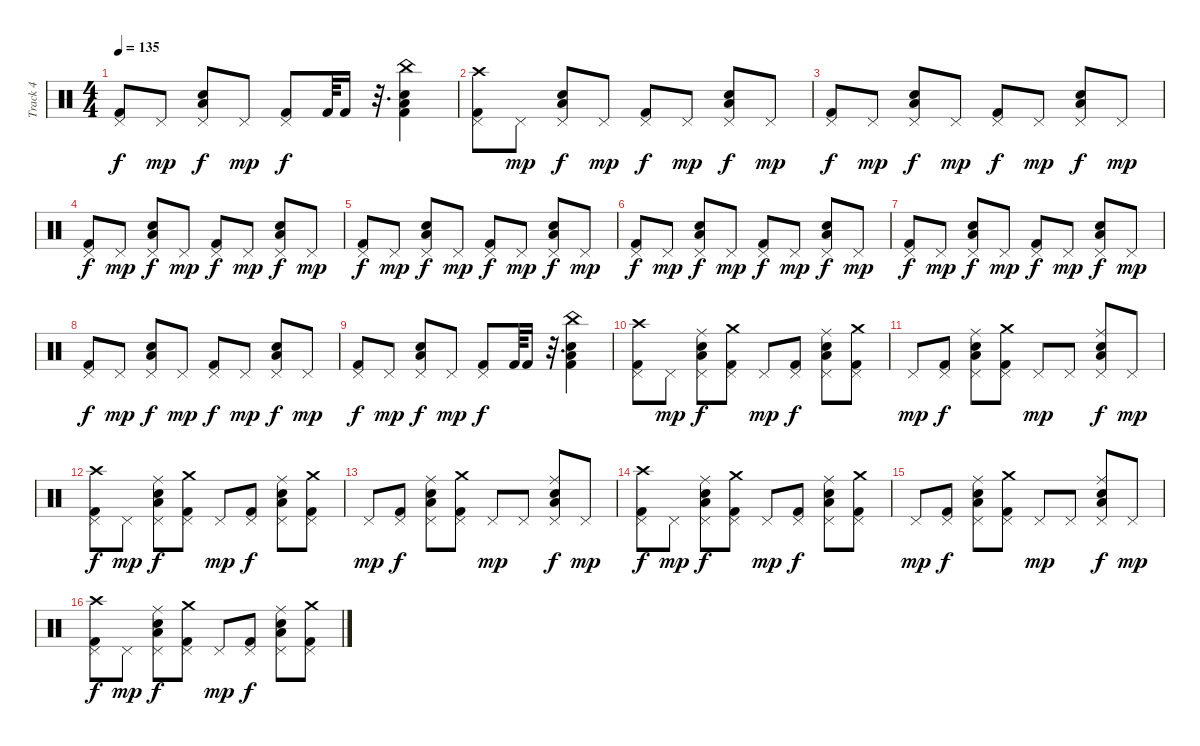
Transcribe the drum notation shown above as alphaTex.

\track ("Track 4" "Track 4") {instrument percussion}
\staff {score}
\articulation defaults
\ts (4 4)
\tempo 135
\clef neutral
\ks c
("Pedal Hi-Hat (hit)" "Kick (hit) 2").8{dy f} "Pedal Hi-Hat (hit)".8{dy mp} ("Pedal Hi-Hat (hit)" "Low Tom (hit)" "Electric Snare (hit)").8{dy f} "Pedal Hi-Hat (hit)".8{dy mp} ("Pedal Hi-Hat (hit)" "Kick (hit) 2").8{dy f} "Kick (hit) 2".64 "Kick (hit) 2".16 r.32{d} ("Low Tom (hit)" "Snare (hit) 2" "Kick (hit) 2" "China (hit)").4 |
("Pedal Hi-Hat (hit)" "Kick (hit) 2" "Crash high (hit)").8 "Pedal Hi-Hat (hit)".8{dy mp} ("Pedal Hi-Hat (hit)" "Low Tom (hit)" "Electric Snare (hit)").8{dy f} "Pedal Hi-Hat (hit)".8{dy mp} ("Pedal Hi-Hat (hit)" "Kick (hit) 2").8{dy f} "Pedal Hi-Hat (hit)".8{dy mp} ("Pedal Hi-Hat (hit)" "Low Tom (hit)" "Electric Snare (hit)").8{dy f} "Pedal Hi-Hat (hit)".8{dy mp} |
("Pedal Hi-Hat (hit)" "Kick (hit) 2").8{dy f} "Pedal Hi-Hat (hit)".8{dy mp} ("Pedal Hi-Hat (hit)" "Low Tom (hit)" "Electric Snare (hit)").8{dy f} "Pedal Hi-Hat (hit)".8{dy mp} ("Pedal Hi-Hat (hit)" "Kick (hit) 2").8{dy f} "Pedal Hi-Hat (hit)".8{dy mp} ("Pedal Hi-Hat (hit)" "Low Tom (hit)" "Electric Snare (hit)").8{dy f} "Pedal Hi-Hat (hit)".8{dy mp} |
("Pedal Hi-Hat (hit)" "Kick (hit) 2").8{dy f} "Pedal Hi-Hat (hit)".8{dy mp} ("Pedal Hi-Hat (hit)" "Low Tom (hit)" "Electric Snare (hit)").8{dy f} "Pedal Hi-Hat (hit)".8{dy mp} ("Pedal Hi-Hat (hit)" "Kick (hit) 2").8{dy f} "Pedal Hi-Hat (hit)".8{dy mp} ("Pedal Hi-Hat (hit)" "Low Tom (hit)" "Electric Snare (hit)").8{dy f} "Pedal Hi-Hat (hit)".8{dy mp} |
("Pedal Hi-Hat (hit)" "Kick (hit) 2").8{dy f} "Pedal Hi-Hat (hit)".8{dy mp} ("Pedal Hi-Hat (hit)" "Low Tom (hit)" "Electric Snare (hit)").8{dy f} "Pedal Hi-Hat (hit)".8{dy mp} ("Pedal Hi-Hat (hit)" "Kick (hit) 2").8{dy f} "Pedal Hi-Hat (hit)".8{dy mp} ("Pedal Hi-Hat (hit)" "Low Tom (hit)" "Electric Snare (hit)").8{dy f} "Pedal Hi-Hat (hit)".8{dy mp} |
("Pedal Hi-Hat (hit)" "Kick (hit) 2").8{dy f} "Pedal Hi-Hat (hit)".8{dy mp} ("Pedal Hi-Hat (hit)" "Low Tom (hit)" "Electric Snare (hit)").8{dy f} "Pedal Hi-Hat (hit)".8{dy mp} ("Pedal Hi-Hat (hit)" "Kick (hit) 2").8{dy f} "Pedal Hi-Hat (hit)".8{dy mp} ("Pedal Hi-Hat (hit)" "Low Tom (hit)" "Electric Snare (hit)").8{dy f} "Pedal Hi-Hat (hit)".8{dy mp} |
("Pedal Hi-Hat (hit)" "Kick (hit) 2").8{dy f} "Pedal Hi-Hat (hit)".8{dy mp} ("Pedal Hi-Hat (hit)" "Low Tom (hit)" "Electric Snare (hit)").8{dy f} "Pedal Hi-Hat (hit)".8{dy mp} ("Pedal Hi-Hat (hit)" "Kick (hit) 2").8{dy f} "Pedal Hi-Hat (hit)".8{dy mp} ("Pedal Hi-Hat (hit)" "Low Tom (hit)" "Electric Snare (hit)").8{dy f} "Pedal Hi-Hat (hit)".8{dy mp} |
("Pedal Hi-Hat (hit)" "Kick (hit) 2").8{dy f} "Pedal Hi-Hat (hit)".8{dy mp} ("Pedal Hi-Hat (hit)" "Low Tom (hit)" "Electric Snare (hit)").8{dy f} "Pedal Hi-Hat (hit)".8{dy mp} ("Pedal Hi-Hat (hit)" "Kick (hit) 2").8{dy f} "Pedal Hi-Hat (hit)".8{dy mp} ("Pedal Hi-Hat (hit)" "Low Tom (hit)" "Electric Snare (hit)").8{dy f} "Pedal Hi-Hat (hit)".8{dy mp} |
("Pedal Hi-Hat (hit)" "Kick (hit) 2").8{dy f} "Pedal Hi-Hat (hit)".8{dy mp} ("Pedal Hi-Hat (hit)" "Low Tom (hit)" "Electric Snare (hit)").8{dy f} "Pedal Hi-Hat (hit)".8{dy mp} ("Pedal Hi-Hat (hit)" "Kick (hit) 2").8{dy f} "Kick (hit) 2".64 "Kick (hit) 2".16 r.32{d} ("Low Tom (hit)" "Snare (hit) 2" "Kick (hit) 2" "China (hit)").4 |
("Pedal Hi-Hat (hit)" "Kick (hit) 2" "Crash high (hit)").8 "Pedal Hi-Hat (hit)".8{dy mp} ("Pedal Hi-Hat (hit)" "Low Tom (hit)" "Electric Snare (hit)" "Ride (middle)").8{dy f} ("Pedal Hi-Hat (hit)" "Kick (hit) 2" "Crash medium (hit)").8 "Pedal Hi-Hat (hit)".8{dy mp} ("Pedal Hi-Hat (hit)" "Kick (hit) 2").8{dy f} ("Pedal Hi-Hat (hit)" "Low Tom (hit)" "Electric Snare (hit)" "Ride (middle)").8 ("Pedal Hi-Hat (hit)" "Kick (hit) 2" "Crash medium (hit)").8 |
"Pedal Hi-Hat (hit)".8{dy mp} ("Pedal Hi-Hat (hit)" "Kick (hit) 2").8{dy f} ("Pedal Hi-Hat (hit)" "Low Tom (hit)" "Electric Snare (hit)" "Ride (middle)").8 ("Pedal Hi-Hat (hit)" "Kick (hit) 2" "Crash medium (hit)").8 "Pedal Hi-Hat (hit)".8{dy mp} "Pedal Hi-Hat (hit)".8 ("Pedal Hi-Hat (hit)" "Low Tom (hit)" "Electric Snare (hit)" "Ride (middle)").8{dy f} "Pedal Hi-Hat (hit)".8{dy mp} |
("Pedal Hi-Hat (hit)" "Kick (hit) 2" "Crash high (hit)").8{dy f} "Pedal Hi-Hat (hit)".8{dy mp} ("Pedal Hi-Hat (hit)" "Low Tom (hit)" "Electric Snare (hit)" "Ride (middle)").8{dy f} ("Pedal Hi-Hat (hit)" "Kick (hit) 2" "Crash medium (hit)").8 "Pedal Hi-Hat (hit)".8{dy mp} ("Pedal Hi-Hat (hit)" "Kick (hit) 2").8{dy f} ("Pedal Hi-Hat (hit)" "Low Tom (hit)" "Electric Snare (hit)" "Ride (middle)").8 ("Pedal Hi-Hat (hit)" "Kick (hit) 2" "Crash medium (hit)").8 |
"Pedal Hi-Hat (hit)".8{dy mp} ("Pedal Hi-Hat (hit)" "Kick (hit) 2").8{dy f} ("Pedal Hi-Hat (hit)" "Low Tom (hit)" "Electric Snare (hit)" "Ride (middle)").8 ("Pedal Hi-Hat (hit)" "Kick (hit) 2" "Crash medium (hit)").8 "Pedal Hi-Hat (hit)".8{dy mp} "Pedal Hi-Hat (hit)".8 ("Pedal Hi-Hat (hit)" "Low Tom (hit)" "Electric Snare (hit)" "Ride (middle)").8{dy f} "Pedal Hi-Hat (hit)".8{dy mp} |
("Pedal Hi-Hat (hit)" "Kick (hit) 2" "Crash high (hit)").8{dy f} "Pedal Hi-Hat (hit)".8{dy mp} ("Pedal Hi-Hat (hit)" "Low Tom (hit)" "Electric Snare (hit)" "Ride (middle)").8{dy f} ("Pedal Hi-Hat (hit)" "Kick (hit) 2" "Crash medium (hit)").8 "Pedal Hi-Hat (hit)".8{dy mp} ("Pedal Hi-Hat (hit)" "Kick (hit) 2").8{dy f} ("Pedal Hi-Hat (hit)" "Low Tom (hit)" "Electric Snare (hit)" "Ride (middle)").8 ("Pedal Hi-Hat (hit)" "Kick (hit) 2" "Crash medium (hit)").8 |
"Pedal Hi-Hat (hit)".8{dy mp} ("Pedal Hi-Hat (hit)" "Kick (hit) 2").8{dy f} ("Pedal Hi-Hat (hit)" "Low Tom (hit)" "Electric Snare (hit)" "Ride (middle)").8 ("Pedal Hi-Hat (hit)" "Kick (hit) 2" "Crash medium (hit)").8 "Pedal Hi-Hat (hit)".8{dy mp} "Pedal Hi-Hat (hit)".8 ("Pedal Hi-Hat (hit)" "Low Tom (hit)" "Electric Snare (hit)" "Ride (middle)").8{dy f} "Pedal Hi-Hat (hit)".8{dy mp} |
("Pedal Hi-Hat (hit)" "Kick (hit) 2" "Crash high (hit)").8{dy f} "Pedal Hi-Hat (hit)".8{dy mp} ("Pedal Hi-Hat (hit)" "Low Tom (hit)" "Electric Snare (hit)" "Ride (middle)").8{dy f} ("Pedal Hi-Hat (hit)" "Kick (hit) 2" "Crash medium (hit)").8 "Pedal Hi-Hat (hit)".8{dy mp} ("Pedal Hi-Hat (hit)" "Kick (hit) 2").8{dy f} ("Pedal Hi-Hat (hit)" "Low Tom (hit)" "Electric Snare (hit)" "Ride (middle)").8 ("Pedal Hi-Hat (hit)" "Kick (hit) 2" "Crash medium (hit)").8
